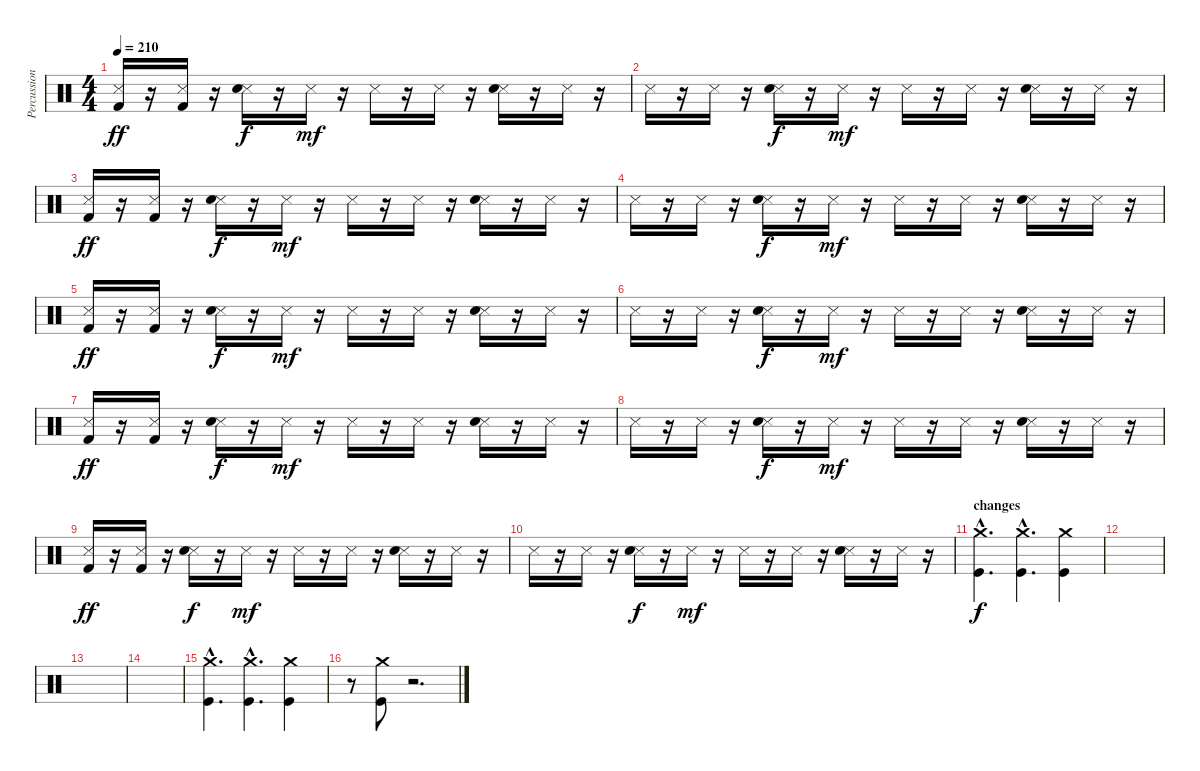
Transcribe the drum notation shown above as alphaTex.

\track ("Percussion" "Percussion") {instrument percussion}
\staff {score}
\articulation defaults
\ts (4 4)
\tempo 210
\clef neutral
\ks c
("Metronome (hit)" "Kick (hit) 2").16{dy ff} r.16 ("Metronome (hit)" "Kick (hit) 2").16 r.16 ("Metronome (hit)" "Electric Snare (hit)").16{dy f} r.16 "Metronome (hit)".16{dy mf} r.16 "Metronome (hit)".16 r.16 "Metronome (hit)".16 r.16 ("Metronome (hit)" "Electric Snare (hit)").16 r.16 "Metronome (hit)".16 r.16 |
"Metronome (hit)".16 r.16 "Metronome (hit)".16 r.16 ("Metronome (hit)" "Electric Snare (hit)").16{dy f} r.16 "Metronome (hit)".16{dy mf} r.16 "Metronome (hit)".16 r.16 "Metronome (hit)".16 r.16 ("Metronome (hit)" "Electric Snare (hit)").16 r.16 "Metronome (hit)".16 r.16 |
("Metronome (hit)" "Kick (hit) 2").16{dy ff} r.16 ("Metronome (hit)" "Kick (hit) 2").16 r.16 ("Metronome (hit)" "Electric Snare (hit)").16{dy f} r.16 "Metronome (hit)".16{dy mf} r.16 "Metronome (hit)".16 r.16 "Metronome (hit)".16 r.16 ("Metronome (hit)" "Electric Snare (hit)").16 r.16 "Metronome (hit)".16 r.16 |
"Metronome (hit)".16 r.16 "Metronome (hit)".16 r.16 ("Metronome (hit)" "Electric Snare (hit)").16{dy f} r.16 "Metronome (hit)".16{dy mf} r.16 "Metronome (hit)".16 r.16 "Metronome (hit)".16 r.16 ("Metronome (hit)" "Electric Snare (hit)").16 r.16 "Metronome (hit)".16 r.16 |
("Metronome (hit)" "Kick (hit) 2").16{dy ff} r.16 ("Metronome (hit)" "Kick (hit) 2").16 r.16 ("Metronome (hit)" "Electric Snare (hit)").16{dy f} r.16 "Metronome (hit)".16{dy mf} r.16 "Metronome (hit)".16 r.16 "Metronome (hit)".16 r.16 ("Metronome (hit)" "Electric Snare (hit)").16 r.16 "Metronome (hit)".16 r.16 |
"Metronome (hit)".16 r.16 "Metronome (hit)".16 r.16 ("Metronome (hit)" "Electric Snare (hit)").16{dy f} r.16 "Metronome (hit)".16{dy mf} r.16 "Metronome (hit)".16 r.16 "Metronome (hit)".16 r.16 ("Metronome (hit)" "Electric Snare (hit)").16 r.16 "Metronome (hit)".16 r.16 |
("Metronome (hit)" "Kick (hit) 2").16{dy ff} r.16 ("Metronome (hit)" "Kick (hit) 2").16 r.16 ("Metronome (hit)" "Electric Snare (hit)").16{dy f} r.16 "Metronome (hit)".16{dy mf} r.16 "Metronome (hit)".16 r.16 "Metronome (hit)".16 r.16 ("Metronome (hit)" "Electric Snare (hit)").16 r.16 "Metronome (hit)".16 r.16 |
"Metronome (hit)".16 r.16 "Metronome (hit)".16 r.16 ("Metronome (hit)" "Electric Snare (hit)").16{dy f} r.16 "Metronome (hit)".16{dy mf} r.16 "Metronome (hit)".16 r.16 "Metronome (hit)".16 r.16 ("Metronome (hit)" "Electric Snare (hit)").16 r.16 "Metronome (hit)".16 r.16 |
("Metronome (hit)" "Kick (hit) 2").16{dy ff} r.16 ("Metronome (hit)" "Kick (hit) 2").16 r.16 ("Metronome (hit)" "Electric Snare (hit)").16{dy f} r.16 "Metronome (hit)".16{dy mf} r.16 "Metronome (hit)".16 r.16 "Metronome (hit)".16 r.16 ("Metronome (hit)" "Electric Snare (hit)").16 r.16 "Metronome (hit)".16 r.16 |
"Metronome (hit)".16 r.16 "Metronome (hit)".16 r.16 ("Metronome (hit)" "Electric Snare (hit)").16{dy f} r.16 "Metronome (hit)".16{dy mf} r.16 "Metronome (hit)".16 r.16 "Metronome (hit)".16 r.16 ("Metronome (hit)" "Electric Snare (hit)").16 r.16 "Metronome (hit)".16 r.16 |
\section ("" "changes")
("Crash medium (hit)"{hac} "Kick (hit)"{hac}).4{d dy f} ("Crash medium (hit)"{hac} "Kick (hit)"{hac}).4{d} ("Crash medium (hit)" "Kick (hit)").4 |
|
|
|
("Crash medium (hit)"{hac} "Kick (hit)"{hac}).4{d} ("Crash medium (hit)"{hac} "Kick (hit)"{hac}).4{d} ("Crash medium (hit)" "Kick (hit)").4 |
r.8 ("Kick (hit)" "Crash medium (hit)").8 r.2{d}
